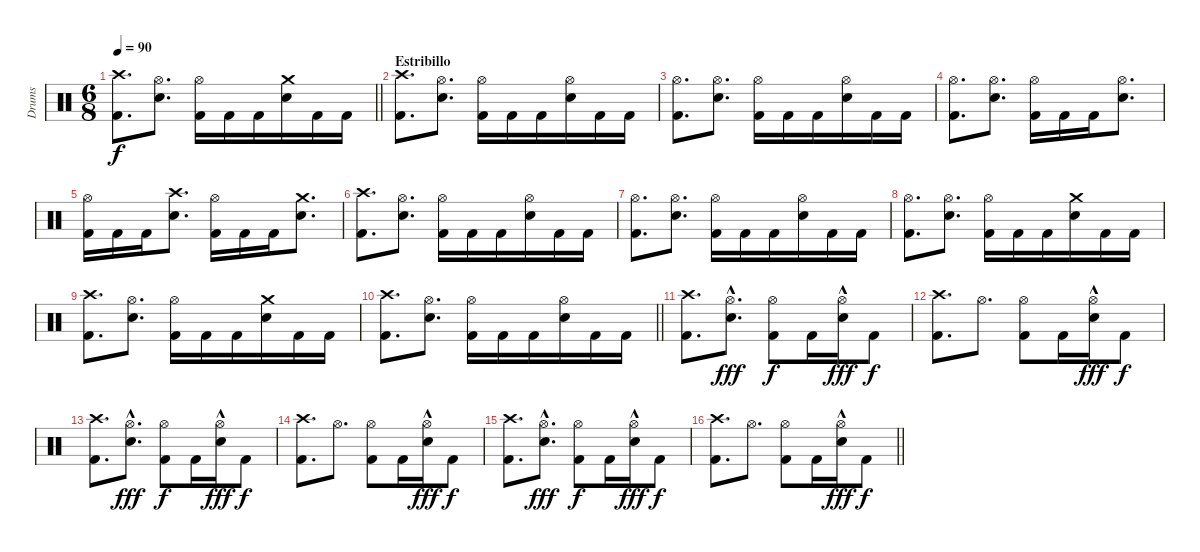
\track ("Drums" "Drums") {instrument percussion}
\staff {score}
\articulation defaults
\ts (6 8)
\tempo 90
\clef neutral
\barLineRight lightlight
\ks c
("Kick (hit) 2" "Crash high (hit)").8{d dy f} ("Electric Snare (hit)" "Hi-Hat (open)").8{d} ("Kick (hit) 2" "Hi-Hat (open)").16 "Kick (hit) 2".16 "Kick (hit) 2".16 ("Electric Snare (hit)" "Crash medium (hit)").16 "Kick (hit) 2".16 "Kick (hit) 2".16 |
\section ("" "Estribillo")
("Kick (hit) 2" "Crash high (hit)").8{d} ("Electric Snare (hit)" "Hi-Hat (open)").8{d} ("Kick (hit) 2" "Hi-Hat (open)").16 "Kick (hit) 2".16 "Kick (hit) 2".16 ("Electric Snare (hit)" "Hi-Hat (open)").16 "Kick (hit) 2".16 "Kick (hit) 2".16 |
("Kick (hit) 2" "Hi-Hat (open)").8{d} ("Electric Snare (hit)" "Hi-Hat (open)").8{d} ("Kick (hit) 2" "Hi-Hat (open)").16 "Kick (hit) 2".16 "Kick (hit) 2".16 ("Electric Snare (hit)" "Hi-Hat (open)").16 "Kick (hit) 2".16 "Kick (hit) 2".16 |
("Kick (hit) 2" "Hi-Hat (open)").8{d} ("Electric Snare (hit)" "Hi-Hat (open)").8{d} ("Kick (hit) 2" "Hi-Hat (open)").16 "Kick (hit) 2".16 "Kick (hit) 2".16 ("Electric Snare (hit)" "Hi-Hat (open)").8{d} |
("Kick (hit) 2" "Hi-Hat (open)").16 "Kick (hit) 2".16 "Kick (hit) 2".16 ("Electric Snare (hit)" "Crash high (hit)").8{d} ("Kick (hit) 2" "Hi-Hat (open)").16 "Kick (hit) 2".16 "Kick (hit) 2".16 ("Electric Snare (hit)" "Crash medium (hit)").8{d} |
("Kick (hit) 2" "Crash high (hit)").8{d} ("Electric Snare (hit)" "Hi-Hat (open)").8{d} ("Kick (hit) 2" "Hi-Hat (open)").16 "Kick (hit) 2".16 "Kick (hit) 2".16 ("Electric Snare (hit)" "Hi-Hat (open)").16 "Kick (hit) 2".16 "Kick (hit) 2".16 |
("Kick (hit) 2" "Hi-Hat (open)").8{d} ("Electric Snare (hit)" "Hi-Hat (open)").8{d} ("Kick (hit) 2" "Hi-Hat (open)").16 "Kick (hit) 2".16 "Kick (hit) 2".16 ("Electric Snare (hit)" "Hi-Hat (open)").16 "Kick (hit) 2".16 "Kick (hit) 2".16 |
("Kick (hit) 2" "Hi-Hat (open)").8{d} ("Electric Snare (hit)" "Hi-Hat (open)").8{d} ("Kick (hit) 2" "Hi-Hat (open)").16 "Kick (hit) 2".16 "Kick (hit) 2".16 ("Electric Snare (hit)" "Crash medium (hit)").16 "Kick (hit) 2".16 "Kick (hit) 2".16 |
("Kick (hit) 2" "Crash high (hit)").8{d} ("Electric Snare (hit)" "Hi-Hat (open)").8{d} ("Kick (hit) 2" "Hi-Hat (open)").16 "Kick (hit) 2".16 "Kick (hit) 2".16 ("Electric Snare (hit)" "Crash medium (hit)").16 "Kick (hit) 2".16 "Kick (hit) 2".16 |
\barLineRight lightlight
("Kick (hit) 2" "Crash high (hit)").8{d} ("Electric Snare (hit)" "Hi-Hat (open)").8{d} ("Kick (hit) 2" "Hi-Hat (open)").16 "Kick (hit) 2".16 "Kick (hit) 2".16 ("Electric Snare (hit)" "Hi-Hat (open)").16 "Kick (hit) 2".16 "Kick (hit) 2".16 |
\section ("" "")
("Kick (hit) 2" "Crash high (hit)").8{d} ("Electric Snare (hit)"{hac} "Hi-Hat (open)").8{d dy fff} ("Kick (hit) 2" "Hi-Hat (open)").8{dy f} "Kick (hit) 2".16 ("Electric Snare (hit)"{hac} "Hi-Hat (open)").16{dy fff} "Kick (hit) 2".8{dy f} |
("Kick (hit) 2" "Crash high (hit)").8{d} "Hi-Hat (open)".8{d} ("Kick (hit) 2" "Hi-Hat (open)").8 "Kick (hit) 2".16 ("Electric Snare (hit)"{hac} "Hi-Hat (open)").16{dy fff} "Kick (hit) 2".8{dy f} |
("Kick (hit) 2" "Crash high (hit)").8{d} ("Electric Snare (hit)"{hac} "Hi-Hat (open)").8{d dy fff} ("Kick (hit) 2" "Hi-Hat (open)").8{dy f} "Kick (hit) 2".16 ("Electric Snare (hit)"{hac} "Hi-Hat (open)").16{dy fff} "Kick (hit) 2".8{dy f} |
("Kick (hit) 2" "Crash high (hit)").8{d} "Hi-Hat (open)".8{d} ("Kick (hit) 2" "Hi-Hat (open)").8 "Kick (hit) 2".16 ("Electric Snare (hit)"{hac} "Hi-Hat (open)").16{dy fff} "Kick (hit) 2".8{dy f} |
("Kick (hit) 2" "Crash high (hit)").8{d} ("Electric Snare (hit)"{hac} "Hi-Hat (open)").8{d dy fff} ("Kick (hit) 2" "Hi-Hat (open)").8{dy f} "Kick (hit) 2".16 ("Electric Snare (hit)"{hac} "Hi-Hat (open)").16{dy fff} "Kick (hit) 2".8{dy f} |
\barLineRight lightlight
("Kick (hit) 2" "Crash high (hit)").8{d} "Hi-Hat (open)".8{d} ("Kick (hit) 2" "Hi-Hat (open)").8 "Kick (hit) 2".16 ("Electric Snare (hit)"{hac} "Hi-Hat (open)").16{dy fff} "Kick (hit) 2".8{dy f}
